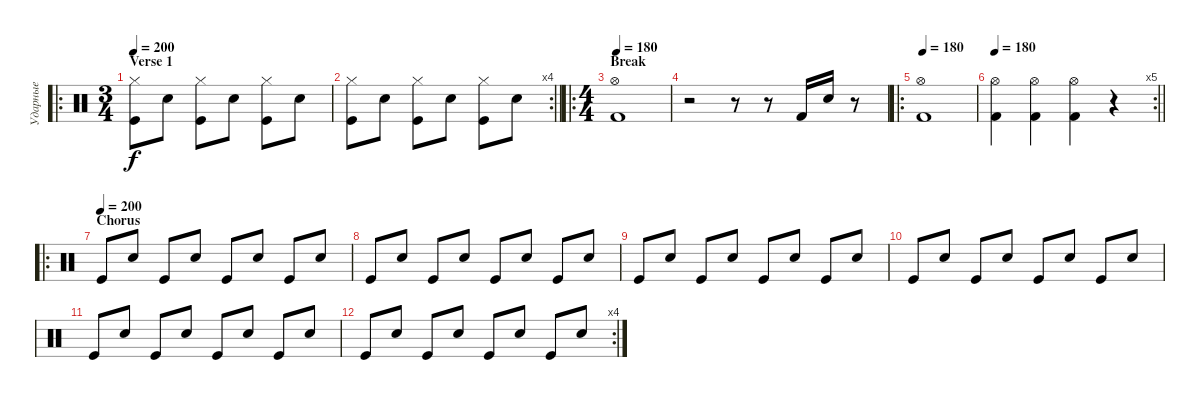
\track ("Ударные" "Ударные") {instrument percussion}
\staff {score}
\articulation defaults
\ro
\ts (3 4)
\section ("" "Verse 1")
\tempo 200
\clef neutral
\ks c
("Hi-Hat (closed)" "Kick (hit)").8{dy f} "Snare (hit) 2".8 ("Hi-Hat (closed)" "Kick (hit)").8 "Snare (hit) 2".8 ("Hi-Hat (closed)" "Kick (hit)").8 "Snare (hit) 2".8 |
\rc 4
\barLineRight lightlight
("Hi-Hat (closed)" "Kick (hit)").8 "Snare (hit) 2".8 ("Hi-Hat (closed)" "Kick (hit)").8 "Snare (hit) 2".8 ("Hi-Hat (closed)" "Kick (hit)").8 "Snare (hit) 2".8 |
\ro
\ts (4 4)
\section ("" "Break")
\tempo 180
("Hi-Hat (open)" "Kick (hit) 2").1 |
r.2 r.8 r.8 "Kick (hit) 2".16 "Snare (hit) 2".16 r.8 |
\ro
\tempo 180
("Hi-Hat (open)" "Kick (hit) 2").1 |
\rc 5
\tempo 180
\barLineRight lightlight
("Hi-Hat (open)" "Kick (hit) 2").4 ("Hi-Hat (open)" "Kick (hit) 2").4 ("Hi-Hat (open)" "Kick (hit) 2").4 r.4 |
\ro
\section ("" "Chorus")
\tempo (200)
"Kick (hit)".8 "Snare (hit) 2".8 "Kick (hit)".8 "Snare (hit) 2".8 "Kick (hit)".8 "Snare (hit) 2".8 "Kick (hit)".8 "Snare (hit) 2".8 |
"Kick (hit)".8 "Snare (hit) 2".8 "Kick (hit)".8 "Snare (hit) 2".8 "Kick (hit)".8 "Snare (hit) 2".8 "Kick (hit)".8 "Snare (hit) 2".8 |
"Kick (hit)".8 "Snare (hit) 2".8 "Kick (hit)".8 "Snare (hit) 2".8 "Kick (hit)".8 "Snare (hit) 2".8 "Kick (hit)".8 "Snare (hit) 2".8 |
"Kick (hit)".8 "Snare (hit) 2".8 "Kick (hit)".8 "Snare (hit) 2".8 "Kick (hit)".8 "Snare (hit) 2".8 "Kick (hit)".8 "Snare (hit) 2".8 |
"Kick (hit)".8 "Snare (hit) 2".8 "Kick (hit)".8 "Snare (hit) 2".8 "Kick (hit)".8 "Snare (hit) 2".8 "Kick (hit)".8 "Snare (hit) 2".8 |
\rc 4 "Kick (hit)".8 "Snare (hit) 2".8 "Kick (hit)".8 "Snare (hit) 2".8 "Kick (hit)".8 "Snare (hit) 2".8 "Kick (hit)".8 "Snare (hit) 2".8
